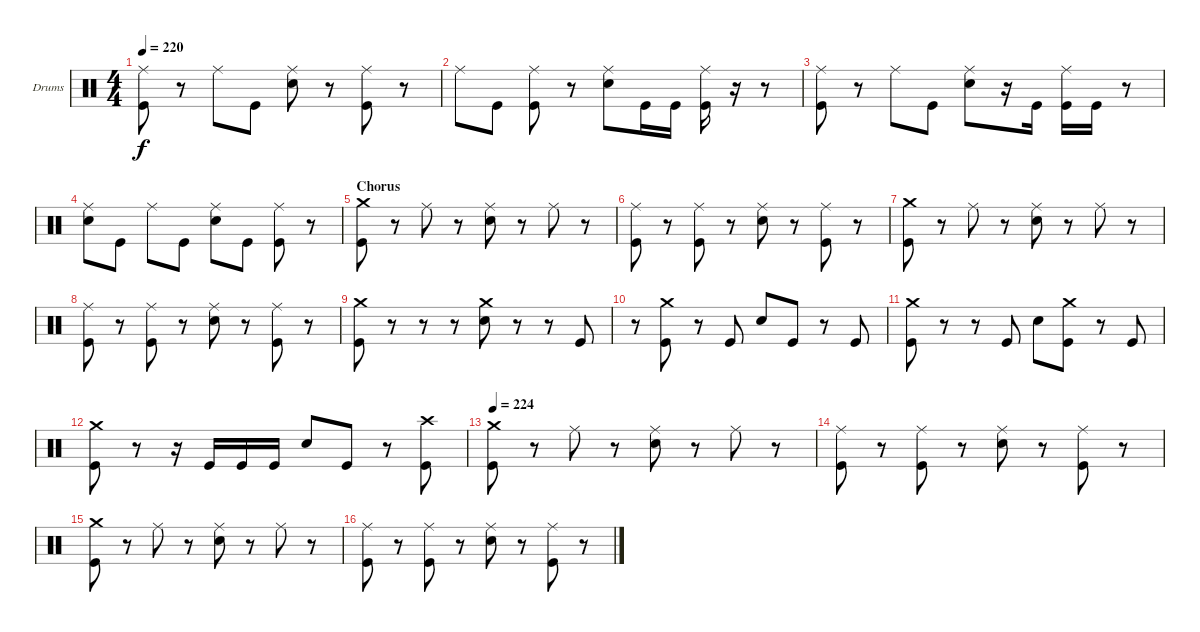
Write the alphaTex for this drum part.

\bracketExtendMode groupsimilarinstruments
\firstSystemTrackNameOrientation horizontal
\otherSystemsTrackNameOrientation horizontal
\track ("Drumkit" "Drums") {instrument percussion}
\staff {score}
\articulation defaults
\ts (4 4)
\tempo 220
\clef neutral
\ks c
("Ride (middle)" "Kick (hit)").8{dy f} r.8 "Ride (middle)".8 "Kick (hit)".8 ("Ride (middle)" "Snare (hit) 2").8 r.8 ("Ride (middle)" "Kick (hit)").8 r.8 |
"Ride (middle)".8 "Kick (hit)".8 ("Ride (middle)" "Kick (hit)").8 r.8 ("Ride (middle)" "Snare (hit) 2").8 "Kick (hit)".16 "Kick (hit)".16 ("Ride (middle)" "Kick (hit)").16 r.16 r.8 |
("Ride (middle)" "Kick (hit)").8 r.8 "Ride (middle)".8 "Kick (hit)".8 ("Ride (middle)" "Snare (hit) 2").8 r.16 "Kick (hit)".16 ("Ride (middle)" "Kick (hit)").16 "Kick (hit)".16 r.8 |
("Ride (middle)" "Snare (hit) 2").8 "Kick (hit)".8 "Ride (middle)".8 "Kick (hit)".8 ("Ride (middle)" "Snare (hit) 2").8 "Kick (hit)".8 ("Ride (middle)" "Kick (hit)").8 r.8 |
\section ("" "Chorus")
("Crash medium (hit)" "Kick (hit)").8 r.8 "Ride (middle)".8 r.8 ("Ride (middle)" "Snare (hit) 2").8 r.8 "Ride (middle)".8 r.8 |
("Ride (middle)" "Kick (hit)").8 r.8 ("Ride (middle)" "Kick (hit)").8 r.8 ("Ride (middle)" "Snare (hit) 2").8 r.8 ("Ride (middle)" "Kick (hit)").8 r.8 |
("Crash medium (hit)" "Kick (hit)").8 r.8 "Ride (middle)".8 r.8 ("Ride (middle)" "Snare (hit) 2").8 r.8 "Ride (middle)".8 r.8 |
("Ride (middle)" "Kick (hit)").8 r.8 ("Ride (middle)" "Kick (hit)").8 r.8 ("Ride (middle)" "Snare (hit) 2").8 r.8 ("Ride (middle)" "Kick (hit)").8 r.8 |
("Crash medium (hit)" "Kick (hit)").8 r.8 r.8 r.8 ("Crash medium (hit)" "Snare (hit) 2").8 r.8 r.8 "Kick (hit)".8 |
r.8 ("Crash medium (hit)" "Kick (hit)").8 r.8 "Kick (hit)".8 "Snare (hit) 2".8 "Kick (hit)".8 r.8 "Kick (hit)".8 |
("Crash medium (hit)" "Kick (hit)").8 r.8 r.8 "Kick (hit)".8 "Snare (hit) 2".8 ("Crash medium (hit)" "Kick (hit)").8 r.8 "Kick (hit)".8 |
("Crash medium (hit)" "Kick (hit)").8 r.8 r.16 "Kick (hit)".16 "Kick (hit)".16 "Kick (hit)".16 "Snare (hit) 2".8 "Kick (hit)".8 r.8 ("Crash high (hit)" "Kick (hit)").8 |
\tempo 224
("Crash medium (hit)" "Kick (hit)").8 r.8 "Ride (middle)".8 r.8 ("Ride (middle)" "Snare (hit) 2").8 r.8 "Ride (middle)".8 r.8 |
("Ride (middle)" "Kick (hit)").8 r.8 ("Ride (middle)" "Kick (hit)").8 r.8 ("Ride (middle)" "Snare (hit) 2").8 r.8 ("Ride (middle)" "Kick (hit)").8 r.8 |
("Crash medium (hit)" "Kick (hit)").8 r.8 "Ride (middle)".8 r.8 ("Ride (middle)" "Snare (hit) 2").8 r.8 "Ride (middle)".8 r.8 |
("Ride (middle)" "Kick (hit)").8 r.8 ("Ride (middle)" "Kick (hit)").8 r.8 ("Ride (middle)" "Snare (hit) 2").8 r.8 ("Ride (middle)" "Kick (hit)").8 r.8
